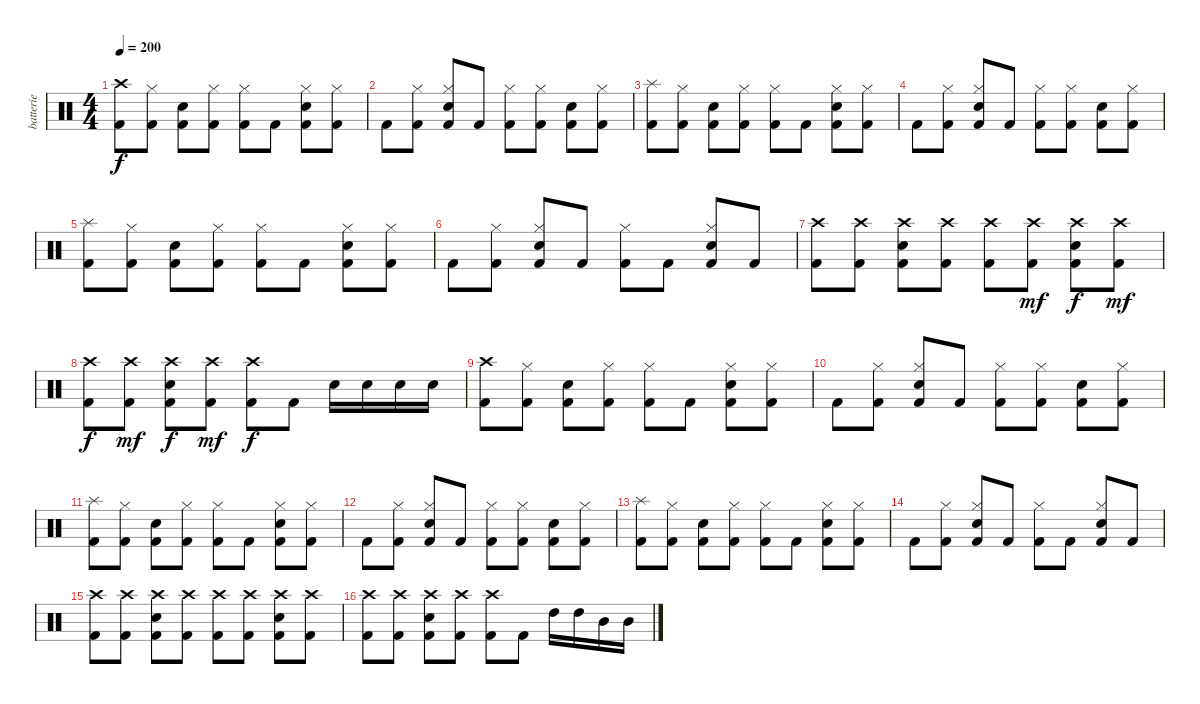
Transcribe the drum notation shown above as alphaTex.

\track ("batterie" "batterie") {instrument percussion}
\staff {score}
\articulation defaults
\ts (4 4)
\tempo 200
\clef neutral
\ks c
("Kick (hit) 2" "Crash high (hit)").8{dy f} ("Kick (hit) 2" "Hi-Hat (closed)").8 ("Kick (hit) 2" "Electric Snare (hit)").8 ("Kick (hit) 2" "Hi-Hat (closed)").8 ("Kick (hit) 2" "Hi-Hat (closed)").8 "Kick (hit) 2".8 ("Kick (hit) 2" "Electric Snare (hit)" "Hi-Hat (closed)").8 ("Kick (hit) 2" "Hi-Hat (closed)").8 |
"Kick (hit) 2".8 ("Kick (hit) 2" "Hi-Hat (closed)").8 ("Kick (hit) 2" "Electric Snare (hit)" "Hi-Hat (closed)").8 "Kick (hit) 2".8 ("Kick (hit) 2" "Hi-Hat (closed)").8 ("Kick (hit) 2" "Hi-Hat (closed)").8 ("Kick (hit) 2" "Electric Snare (hit)").8 ("Kick (hit) 2" "Hi-Hat (closed)").8 |
("Kick (hit) 2" "Splash (hit)").8 ("Kick (hit) 2" "Hi-Hat (closed)").8 ("Kick (hit) 2" "Electric Snare (hit)").8 ("Kick (hit) 2" "Hi-Hat (closed)").8 ("Kick (hit) 2" "Hi-Hat (closed)").8 "Kick (hit) 2".8 ("Kick (hit) 2" "Electric Snare (hit)" "Hi-Hat (closed)").8 ("Kick (hit) 2" "Hi-Hat (closed)").8 |
"Kick (hit) 2".8 ("Kick (hit) 2" "Hi-Hat (closed)").8 ("Kick (hit) 2" "Electric Snare (hit)" "Hi-Hat (closed)").8 "Kick (hit) 2".8 ("Kick (hit) 2" "Hi-Hat (closed)").8 ("Kick (hit) 2" "Hi-Hat (closed)").8 ("Kick (hit) 2" "Electric Snare (hit)").8 ("Kick (hit) 2" "Hi-Hat (closed)").8 |
("Kick (hit) 2" "Splash (hit)").8 ("Kick (hit) 2" "Hi-Hat (closed)").8 ("Kick (hit) 2" "Electric Snare (hit)").8 ("Kick (hit) 2" "Hi-Hat (closed)").8 ("Kick (hit) 2" "Hi-Hat (closed)").8 "Kick (hit) 2".8 ("Kick (hit) 2" "Electric Snare (hit)" "Hi-Hat (closed)").8 ("Kick (hit) 2" "Hi-Hat (closed)").8 |
"Kick (hit) 2".8 ("Kick (hit) 2" "Hi-Hat (closed)").8 ("Kick (hit) 2" "Electric Snare (hit)" "Hi-Hat (closed)").8 "Kick (hit) 2".8 ("Kick (hit) 2" "Hi-Hat (closed)").8 "Kick (hit) 2".8 ("Kick (hit) 2" "Electric Snare (hit)" "Hi-Hat (closed)").8 "Kick (hit) 2".8 |
("Kick (hit) 2" "Crash high (hit)").8 ("Kick (hit) 2" "Crash high (hit)").8 ("Kick (hit) 2" "Electric Snare (hit)" "Crash high (hit)").8 ("Kick (hit) 2" "Crash high (hit)").8 ("Kick (hit) 2" "Crash high (hit)").8 ("Kick (hit) 2" "Crash high (hit)").8{dy mf} ("Kick (hit) 2" "Electric Snare (hit)" "Crash high (hit)").8{dy f} ("Kick (hit) 2" "Crash high (hit)").8{dy mf} |
("Kick (hit) 2" "Crash high (hit)").8{dy f} ("Kick (hit) 2" "Crash high (hit)").8{dy mf} ("Kick (hit) 2" "Electric Snare (hit)" "Crash high (hit)").8{dy f} ("Kick (hit) 2" "Crash high (hit)").8{dy mf} ("Kick (hit) 2" "Crash high (hit)").8{dy f} "Kick (hit) 2".8 "Electric Snare (hit)".16 "Electric Snare (hit)".16 "Electric Snare (hit)".16 "Electric Snare (hit)".16 |
("Kick (hit) 2" "Crash high (hit)").8 ("Kick (hit) 2" "Hi-Hat (closed)").8 ("Kick (hit) 2" "Electric Snare (hit)").8 ("Kick (hit) 2" "Hi-Hat (closed)").8 ("Kick (hit) 2" "Hi-Hat (closed)").8 "Kick (hit) 2".8 ("Kick (hit) 2" "Electric Snare (hit)" "Hi-Hat (closed)").8 ("Kick (hit) 2" "Hi-Hat (closed)").8 |
"Kick (hit) 2".8 ("Kick (hit) 2" "Hi-Hat (closed)").8 ("Kick (hit) 2" "Electric Snare (hit)" "Hi-Hat (closed)").8 "Kick (hit) 2".8 ("Kick (hit) 2" "Hi-Hat (closed)").8 ("Kick (hit) 2" "Hi-Hat (closed)").8 ("Kick (hit) 2" "Electric Snare (hit)").8 ("Kick (hit) 2" "Hi-Hat (closed)").8 |
("Kick (hit) 2" "Splash (hit)").8 ("Kick (hit) 2" "Hi-Hat (closed)").8 ("Kick (hit) 2" "Electric Snare (hit)").8 ("Kick (hit) 2" "Hi-Hat (closed)").8 ("Kick (hit) 2" "Hi-Hat (closed)").8 "Kick (hit) 2".8 ("Kick (hit) 2" "Electric Snare (hit)" "Hi-Hat (closed)").8 ("Kick (hit) 2" "Hi-Hat (closed)").8 |
"Kick (hit) 2".8 ("Kick (hit) 2" "Hi-Hat (closed)").8 ("Kick (hit) 2" "Electric Snare (hit)" "Hi-Hat (closed)").8 "Kick (hit) 2".8 ("Kick (hit) 2" "Hi-Hat (closed)").8 ("Kick (hit) 2" "Hi-Hat (closed)").8 ("Kick (hit) 2" "Electric Snare (hit)").8 ("Kick (hit) 2" "Hi-Hat (closed)").8 |
("Kick (hit) 2" "Splash (hit)").8 ("Kick (hit) 2" "Hi-Hat (closed)").8 ("Kick (hit) 2" "Electric Snare (hit)").8 ("Kick (hit) 2" "Hi-Hat (closed)").8 ("Kick (hit) 2" "Hi-Hat (closed)").8 "Kick (hit) 2".8 ("Kick (hit) 2" "Electric Snare (hit)" "Hi-Hat (closed)").8 ("Kick (hit) 2" "Hi-Hat (closed)").8 |
"Kick (hit) 2".8 ("Kick (hit) 2" "Hi-Hat (closed)").8 ("Kick (hit) 2" "Electric Snare (hit)" "Hi-Hat (closed)").8 "Kick (hit) 2".8 ("Kick (hit) 2" "Hi-Hat (closed)").8 "Kick (hit) 2".8 ("Kick (hit) 2" "Electric Snare (hit)" "Hi-Hat (closed)").8 "Kick (hit) 2".8 |
("Kick (hit) 2" "Crash high (hit)").8 ("Kick (hit) 2" "Crash high (hit)").8 ("Kick (hit) 2" "Electric Snare (hit)" "Crash high (hit)").8 ("Kick (hit) 2" "Crash high (hit)").8 ("Kick (hit) 2" "Crash high (hit)").8 ("Kick (hit) 2" "Crash high (hit)").8 ("Kick (hit) 2" "Electric Snare (hit)" "Crash high (hit)").8 ("Kick (hit) 2" "Crash high (hit)").8 |
("Kick (hit) 2" "Crash high (hit)").8 ("Kick (hit) 2" "Crash high (hit)").8 ("Kick (hit) 2" "Electric Snare (hit)" "Crash high (hit)").8 ("Kick (hit) 2" "Crash high (hit)").8 ("Kick (hit) 2" "Crash high (hit)").8 "Kick (hit) 2".8 "High Tom (hit)".16 "High Tom (hit)".16 "Mid Tom (hit)".16 "Mid Tom (hit)".16
